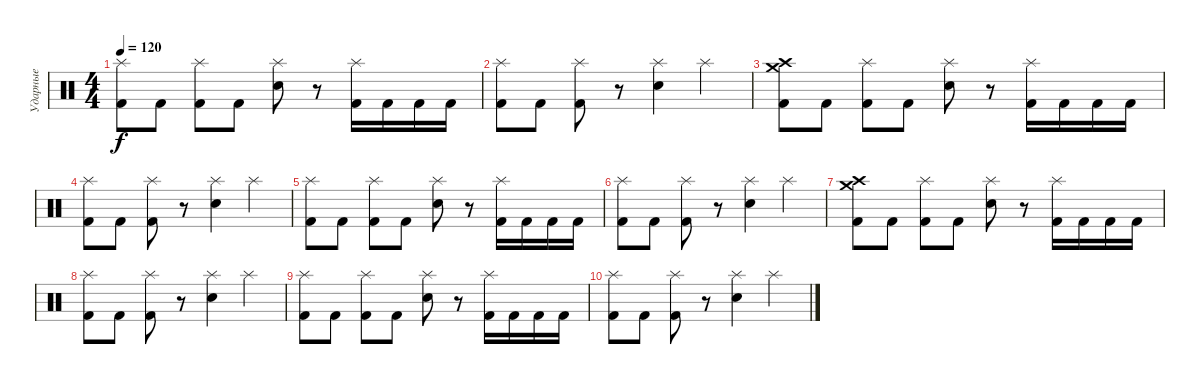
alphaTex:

\track ("Ударные" "Ударные") {instrument percussion}
\staff {score}
\articulation defaults
\ts (4 4)
\tempo 120
\clef neutral
\ks c
("Splash (hit)" "Kick (hit) 2").8{dy f} "Kick (hit) 2".8 ("Splash (hit)" "Kick (hit) 2").8 "Kick (hit) 2".8 ("Splash (hit)" "Electric Snare (hit)").8 r.8 ("Splash (hit)" "Kick (hit) 2").16 "Kick (hit) 2".16 "Kick (hit) 2".16 "Kick (hit) 2".16 |
("Splash (hit)" "Kick (hit) 2").8 "Kick (hit) 2".8 ("Splash (hit)" "Kick (hit) 2").8 r.8 ("Splash (hit)" "Electric Snare (hit)").4 "Splash (hit)".4 |
("Crash medium (hit)" "Crash high (hit)" "Kick (hit) 2").8 "Kick (hit) 2".8 ("Splash (hit)" "Kick (hit) 2").8 "Kick (hit) 2".8 ("Splash (hit)" "Electric Snare (hit)").8 r.8 ("Splash (hit)" "Kick (hit) 2").16 "Kick (hit) 2".16 "Kick (hit) 2".16 "Kick (hit) 2".16 |
("Splash (hit)" "Kick (hit) 2").8 "Kick (hit) 2".8 ("Splash (hit)" "Kick (hit) 2").8 r.8 ("Splash (hit)" "Electric Snare (hit)").4 "Splash (hit)".4 |
("Splash (hit)" "Kick (hit) 2").8 "Kick (hit) 2".8 ("Splash (hit)" "Kick (hit) 2").8 "Kick (hit) 2".8 ("Splash (hit)" "Electric Snare (hit)").8 r.8 ("Splash (hit)" "Kick (hit) 2").16 "Kick (hit) 2".16 "Kick (hit) 2".16 "Kick (hit) 2".16 |
("Splash (hit)" "Kick (hit) 2").8 "Kick (hit) 2".8 ("Splash (hit)" "Kick (hit) 2").8 r.8 ("Splash (hit)" "Electric Snare (hit)").4 "Splash (hit)".4 |
("Crash medium (hit)" "Crash high (hit)" "Kick (hit) 2").8 "Kick (hit) 2".8 ("Splash (hit)" "Kick (hit) 2").8 "Kick (hit) 2".8 ("Splash (hit)" "Electric Snare (hit)").8 r.8 ("Splash (hit)" "Kick (hit) 2").16 "Kick (hit) 2".16 "Kick (hit) 2".16 "Kick (hit) 2".16 |
("Splash (hit)" "Kick (hit) 2").8 "Kick (hit) 2".8 ("Splash (hit)" "Kick (hit) 2").8 r.8 ("Splash (hit)" "Electric Snare (hit)").4 "Splash (hit)".4 |
("Splash (hit)" "Kick (hit) 2").8 "Kick (hit) 2".8 ("Splash (hit)" "Kick (hit) 2").8 "Kick (hit) 2".8 ("Splash (hit)" "Electric Snare (hit)").8 r.8 ("Splash (hit)" "Kick (hit) 2").16 "Kick (hit) 2".16 "Kick (hit) 2".16 "Kick (hit) 2".16 |
("Splash (hit)" "Kick (hit) 2").8 "Kick (hit) 2".8 ("Splash (hit)" "Kick (hit) 2").8 r.8 ("Splash (hit)" "Electric Snare (hit)").4 "Splash (hit)".4
